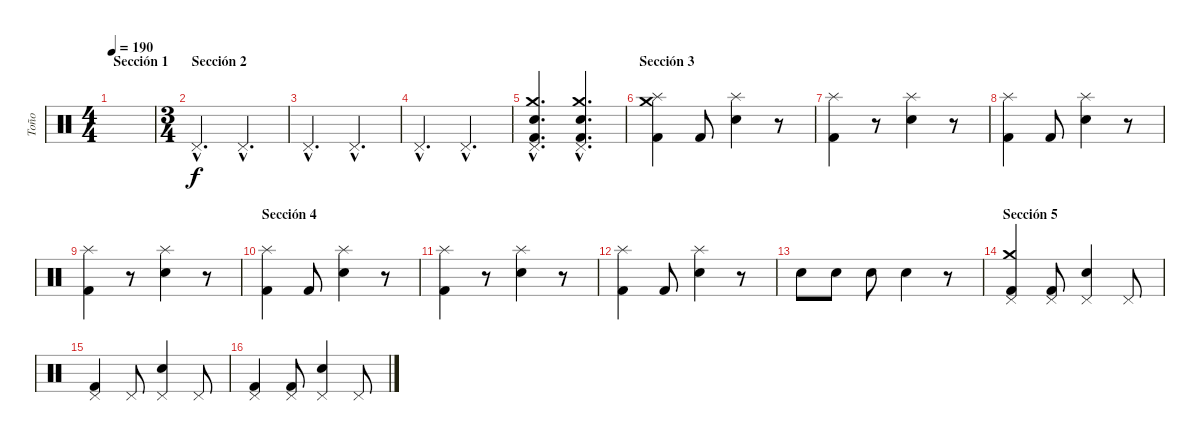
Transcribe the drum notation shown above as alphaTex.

\track ("Toño" "Toño") {instrument percussion}
\staff {score}
\articulation defaults
\ts (4 4)
\section ("" "Sección 1")
\tempo 190
\tempo 70
\tempo 190
\clef neutral
\ks c
|
\ts (3 4)
\section ("" "Sección 2")
"Pedal Hi-Hat (hit)"{hac}.4{d} "Pedal Hi-Hat (hit)"{hac}.4{d} |
"Pedal Hi-Hat (hit)"{hac}.4{d} "Pedal Hi-Hat (hit)"{hac}.4{d} |
"Pedal Hi-Hat (hit)"{hac}.4{d} "Pedal Hi-Hat (hit)"{hac}.4{d} |
("Pedal Hi-Hat (hit)"{hac} "Crash medium (hit)"{hac} "Electric Snare (hit)"{hac} "Kick (hit) 2"{hac}).4{d} ("Pedal Hi-Hat (hit)"{hac} "Crash medium (hit)"{hac} "Electric Snare (hit)"{hac} "Kick (hit) 2"{hac}).4{d} |
\section ("" "Sección 3")
("Splash (hit)" "Crash medium (hit)" "Kick (hit) 2").4 "Kick (hit) 2".8 ("Splash (hit)" "Electric Snare (hit)").4 r.8 |
("Splash (hit)" "Kick (hit) 2").4 r.8 ("Splash (hit)" "Electric Snare (hit)").4 r.8 |
("Splash (hit)" "Kick (hit) 2").4 "Kick (hit) 2".8 ("Splash (hit)" "Electric Snare (hit)").4 r.8 |
("Splash (hit)" "Kick (hit) 2").4 r.8 ("Splash (hit)" "Electric Snare (hit)").4 r.8 |
\section ("" "Sección 4")
("Splash (hit)" "Kick (hit) 2").4 "Kick (hit) 2".8 ("Splash (hit)" "Electric Snare (hit)").4 r.8 |
("Splash (hit)" "Kick (hit) 2").4 r.8 ("Splash (hit)" "Electric Snare (hit)").4 r.8 |
("Splash (hit)" "Kick (hit) 2").4 "Kick (hit) 2".8 ("Splash (hit)" "Electric Snare (hit)").4 r.8 |
"Electric Snare (hit)".8 "Electric Snare (hit)".8 "Electric Snare (hit)".8 "Electric Snare (hit)".4 r.8 |
\section ("" "Sección 5")
("Pedal Hi-Hat (hit)" "Crash medium (hit)" "Kick (hit) 2").4 ("Pedal Hi-Hat (hit)" "Kick (hit) 2").8 ("Pedal Hi-Hat (hit)" "Electric Snare (hit)").4 "Pedal Hi-Hat (hit)".8 |
("Pedal Hi-Hat (hit)" "Kick (hit) 2").4 "Pedal Hi-Hat (hit)".8 ("Pedal Hi-Hat (hit)" "Electric Snare (hit)").4 "Pedal Hi-Hat (hit)".8 |
("Pedal Hi-Hat (hit)" "Kick (hit) 2").4 ("Pedal Hi-Hat (hit)" "Kick (hit) 2").8 ("Pedal Hi-Hat (hit)" "Electric Snare (hit)").4 "Pedal Hi-Hat (hit)".8
